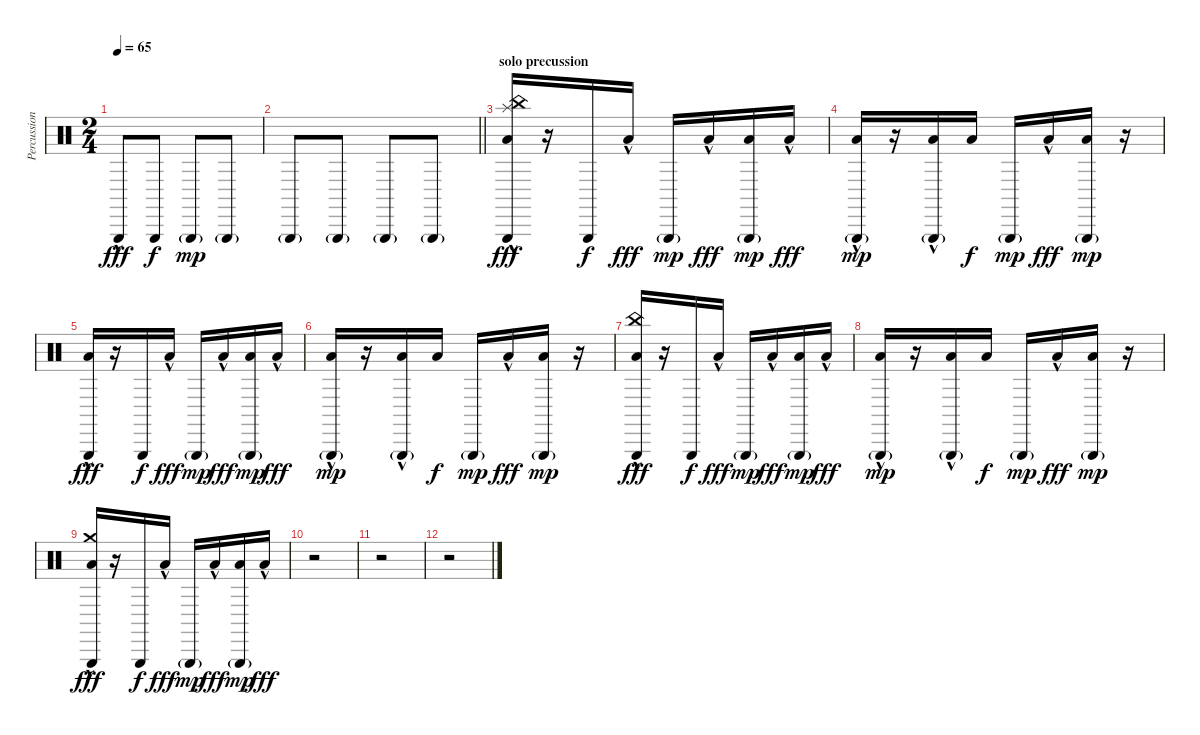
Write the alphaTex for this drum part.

\track ("Percussions" "Percussion") {instrument percussion}
\staff {score}
\articulation defaults
\ts (2 4)
\tempo 65
\clef neutral
\ks c "Triangle (hit)"{hac}.8{dy fff} "Triangle (hit)".8{dy f} "Triangle (hit)"{g}.8{dy mp} "Triangle (hit)"{g}.8
|
\barLineRight lightlight "Triangle (hit)"{g}.8 "Triangle (hit)"{g}.8 "Triangle (hit)"{g}.8 "Triangle (hit)"{g}.8
|
\section ("" "solo precussion")
("Splash (hit)" "Low Floor Tom (hit)"{hac} "China (hit)" "Triangle (hit)"{hac}).16{dy fff} r.16 "Triangle (hit)".16{dy f} "Low Floor Tom (hit)"{hac}.16{dy fff} "Triangle (hit)"{g}.16{dy mp} "Low Floor Tom (hit)"{hac}.16{dy fff} ("Low Floor Tom (hit)" "Triangle (hit)"{g}).16{dy mp} "Low Floor Tom (hit)"{hac}.16{dy fff} |
("Low Floor Tom (hit)"{hac} "Triangle (hit)"{g}).16{dy mp} r.16 ("Low Floor Tom (hit)"{hac} "Triangle (hit)"{g}).16 "Low Floor Tom (hit)".16{dy f} "Triangle (hit)"{g}.16{dy mp} "Low Floor Tom (hit)"{hac}.16{dy fff} ("Low Floor Tom (hit)" "Triangle (hit)"{g}).16{dy mp} r.16 |
("Low Floor Tom (hit)"{hac} "Triangle (hit)"{hac}).16{dy fff} r.16 "Triangle (hit)".16{dy f} "Low Floor Tom (hit)"{hac}.16{dy fff} "Triangle (hit)"{g}.16{dy mp} "Low Floor Tom (hit)"{hac}.16{dy fff} ("Low Floor Tom (hit)" "Triangle (hit)"{g}).16{dy mp} "Low Floor Tom (hit)"{hac}.16{dy fff} |
("Low Floor Tom (hit)"{hac} "Triangle (hit)"{g}).16{dy mp} r.16 ("Low Floor Tom (hit)"{hac} "Triangle (hit)"{g}).16 "Low Floor Tom (hit)".16{dy f} "Triangle (hit)"{g}.16{dy mp} "Low Floor Tom (hit)"{hac}.16{dy fff} ("Low Floor Tom (hit)" "Triangle (hit)"{g}).16{dy mp} r.16 |
("Low Floor Tom (hit)"{hac} "China (hit)" "Triangle (hit)"{hac}).16{dy fff} r.16 "Triangle (hit)".16{dy f} "Low Floor Tom (hit)"{hac}.16{dy fff} "Triangle (hit)"{g}.16{dy mp} "Low Floor Tom (hit)"{hac}.16{dy fff} ("Low Floor Tom (hit)" "Triangle (hit)"{g}).16{dy mp} "Low Floor Tom (hit)"{hac}.16{dy fff} |
("Low Floor Tom (hit)"{hac} "Triangle (hit)"{g}).16{dy mp} r.16 ("Low Floor Tom (hit)"{hac} "Triangle (hit)"{g}).16 "Low Floor Tom (hit)".16{dy f} "Triangle (hit)"{g}.16{dy mp} "Low Floor Tom (hit)"{hac}.16{dy fff} ("Low Floor Tom (hit)" "Triangle (hit)"{g}).16{dy mp} r.16 |
("Low Floor Tom (hit)"{hac} "Crash medium (hit)" "Triangle (hit)"{hac}).16{dy fff} r.16 "Triangle (hit)".16{dy f} "Low Floor Tom (hit)"{hac}.16{dy fff} "Triangle (hit)"{g}.16{dy mp} "Low Floor Tom (hit)"{hac}.16{dy fff} ("Low Floor Tom (hit)" "Triangle (hit)"{g}).16{dy mp} "Low Floor Tom (hit)"{hac}.16{dy fff} |
r.2 |
r.2 |
r.2
